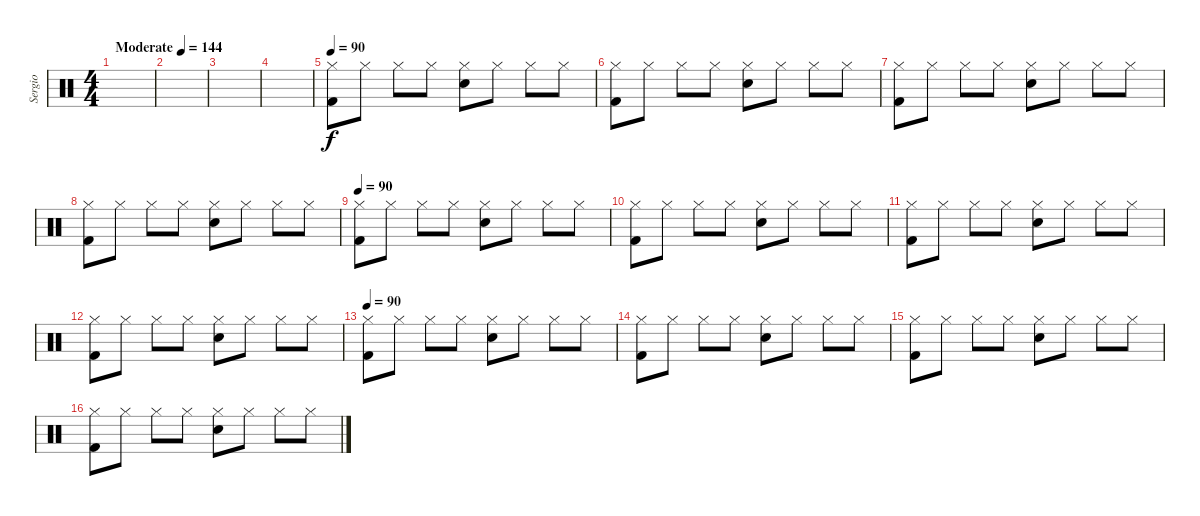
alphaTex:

\track ("Sergio" "Sergio") {instrument percussion}
\staff {score}
\articulation defaults
\ts (4 4)
\tempo (144 "Moderate")
\tempo 90
\tempo (144 "Moderate")
\clef neutral
\ks c
|
|
|
|
\tempo 90
("Hi-Hat (closed)" "Kick (hit) 2").8{volume 15} "Hi-Hat (closed)".8 "Hi-Hat (closed)".8 "Hi-Hat (closed)".8 ("Hi-Hat (closed)" "Electric Snare (hit)").8 "Hi-Hat (closed)".8 "Hi-Hat (closed)".8 "Hi-Hat (closed)".8 |
("Hi-Hat (closed)" "Kick (hit) 2").8 "Hi-Hat (closed)".8 "Hi-Hat (closed)".8 "Hi-Hat (closed)".8 ("Hi-Hat (closed)" "Electric Snare (hit)").8 "Hi-Hat (closed)".8 "Hi-Hat (closed)".8 "Hi-Hat (closed)".8 |
("Hi-Hat (closed)" "Kick (hit) 2").8 "Hi-Hat (closed)".8 "Hi-Hat (closed)".8 "Hi-Hat (closed)".8 ("Hi-Hat (closed)" "Electric Snare (hit)").8 "Hi-Hat (closed)".8 "Hi-Hat (closed)".8 "Hi-Hat (closed)".8 |
("Hi-Hat (closed)" "Kick (hit) 2").8 "Hi-Hat (closed)".8 "Hi-Hat (closed)".8 "Hi-Hat (closed)".8 ("Hi-Hat (closed)" "Electric Snare (hit)").8 "Hi-Hat (closed)".8 "Hi-Hat (closed)".8 "Hi-Hat (closed)".8 |
\tempo 90
("Hi-Hat (closed)" "Kick (hit) 2").8 "Hi-Hat (closed)".8 "Hi-Hat (closed)".8 "Hi-Hat (closed)".8 ("Hi-Hat (closed)" "Electric Snare (hit)").8 "Hi-Hat (closed)".8 "Hi-Hat (closed)".8 "Hi-Hat (closed)".8 |
("Hi-Hat (closed)" "Kick (hit) 2").8 "Hi-Hat (closed)".8 "Hi-Hat (closed)".8 "Hi-Hat (closed)".8 ("Hi-Hat (closed)" "Electric Snare (hit)").8 "Hi-Hat (closed)".8 "Hi-Hat (closed)".8 "Hi-Hat (closed)".8 |
("Hi-Hat (closed)" "Kick (hit) 2").8 "Hi-Hat (closed)".8 "Hi-Hat (closed)".8 "Hi-Hat (closed)".8 ("Hi-Hat (closed)" "Electric Snare (hit)").8 "Hi-Hat (closed)".8 "Hi-Hat (closed)".8 "Hi-Hat (closed)".8 |
("Hi-Hat (closed)" "Kick (hit) 2").8 "Hi-Hat (closed)".8 "Hi-Hat (closed)".8 "Hi-Hat (closed)".8 ("Hi-Hat (closed)" "Electric Snare (hit)").8 "Hi-Hat (closed)".8 "Hi-Hat (closed)".8 "Hi-Hat (closed)".8 |
\tempo 90
("Hi-Hat (closed)" "Kick (hit) 2").8 "Hi-Hat (closed)".8 "Hi-Hat (closed)".8 "Hi-Hat (closed)".8 ("Hi-Hat (closed)" "Electric Snare (hit)").8 "Hi-Hat (closed)".8 "Hi-Hat (closed)".8 "Hi-Hat (closed)".8 |
("Hi-Hat (closed)" "Kick (hit) 2").8 "Hi-Hat (closed)".8 "Hi-Hat (closed)".8 "Hi-Hat (closed)".8 ("Hi-Hat (closed)" "Electric Snare (hit)").8 "Hi-Hat (closed)".8 "Hi-Hat (closed)".8 "Hi-Hat (closed)".8 |
("Hi-Hat (closed)" "Kick (hit) 2").8 "Hi-Hat (closed)".8 "Hi-Hat (closed)".8 "Hi-Hat (closed)".8 ("Hi-Hat (closed)" "Electric Snare (hit)").8 "Hi-Hat (closed)".8 "Hi-Hat (closed)".8 "Hi-Hat (closed)".8 |
("Hi-Hat (closed)" "Kick (hit) 2").8 "Hi-Hat (closed)".8 "Hi-Hat (closed)".8 "Hi-Hat (closed)".8 ("Hi-Hat (closed)" "Electric Snare (hit)").8 "Hi-Hat (closed)".8 "Hi-Hat (closed)".8 "Hi-Hat (closed)".8
